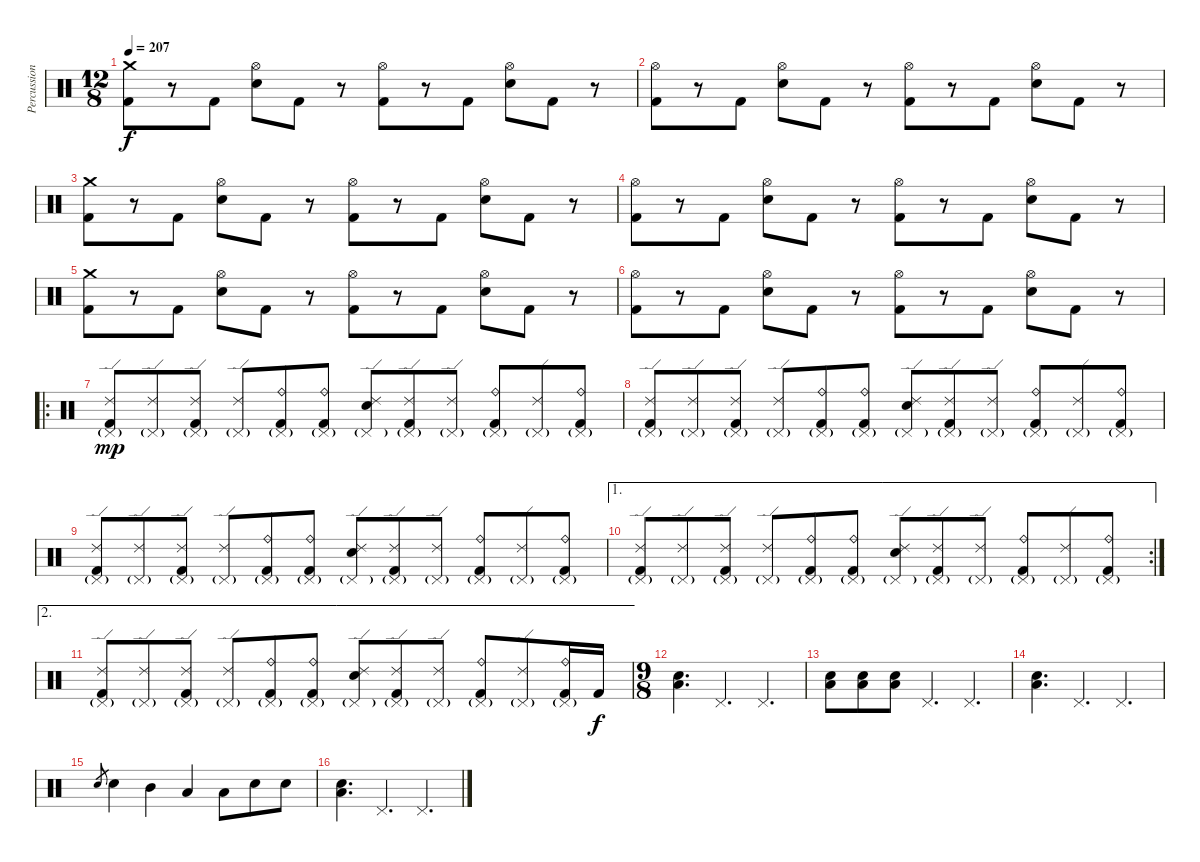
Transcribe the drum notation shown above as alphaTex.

\track ("Percussion" "Percussion") {instrument percussion}
\staff {score}
\articulation defaults
\ts (12 8)
\tempo 207
\clef neutral
\ks c
("Crash medium (hit)" "Kick (hit) 2").8{dy f} r.8 "Kick (hit) 2".8 ("Hi-Hat (open)" "Electric Snare (hit)").8 "Kick (hit) 2".8 r.8 ("Hi-Hat (open)" "Kick (hit) 2").8 r.8 "Kick (hit) 2".8 ("Hi-Hat (open)" "Electric Snare (hit)").8 "Kick (hit) 2".8 r.8 |
("Hi-Hat (open)" "Kick (hit) 2").8 r.8 "Kick (hit) 2".8 ("Hi-Hat (open)" "Electric Snare (hit)").8 "Kick (hit) 2".8 r.8 ("Hi-Hat (open)" "Kick (hit) 2").8 r.8 "Kick (hit) 2".8 ("Hi-Hat (open)" "Electric Snare (hit)").8 "Kick (hit) 2".8 r.8 |
("Crash medium (hit)" "Kick (hit) 2").8 r.8 "Kick (hit) 2".8 ("Hi-Hat (open)" "Electric Snare (hit)").8 "Kick (hit) 2".8 r.8 ("Hi-Hat (open)" "Kick (hit) 2").8 r.8 "Kick (hit) 2".8 ("Hi-Hat (open)" "Electric Snare (hit)").8 "Kick (hit) 2".8 r.8 |
("Hi-Hat (open)" "Kick (hit) 2").8 r.8 "Kick (hit) 2".8 ("Hi-Hat (open)" "Electric Snare (hit)").8 "Kick (hit) 2".8 r.8 ("Hi-Hat (open)" "Kick (hit) 2").8 r.8 "Kick (hit) 2".8 ("Hi-Hat (open)" "Electric Snare (hit)").8 "Kick (hit) 2".8 r.8 |
("Crash medium (hit)" "Kick (hit) 2").8 r.8 "Kick (hit) 2".8 ("Hi-Hat (open)" "Electric Snare (hit)").8 "Kick (hit) 2".8 r.8 ("Hi-Hat (open)" "Kick (hit) 2").8 r.8 "Kick (hit) 2".8 ("Hi-Hat (open)" "Electric Snare (hit)").8 "Kick (hit) 2".8 r.8 |
("Hi-Hat (open)" "Kick (hit) 2").8 r.8 "Kick (hit) 2".8 ("Hi-Hat (open)" "Electric Snare (hit)").8 "Kick (hit) 2".8 r.8 ("Hi-Hat (open)" "Kick (hit) 2").8 r.8 "Kick (hit) 2".8 ("Hi-Hat (open)" "Electric Snare (hit)").8 "Kick (hit) 2".8 r.8 |
\ro
("Ride (edge) 2" "Pedal Hi-Hat (hit)"{g} "Kick (hit) 2").8{dy mp} ("Ride (edge) 2" "Pedal Hi-Hat (hit)"{g}).8 ("Ride (edge) 2" "Pedal Hi-Hat (hit)"{g} "Kick (hit) 2").8 ("Ride (edge) 2" "Pedal Hi-Hat (hit)"{g}).8 ("Ride (bell)" "Pedal Hi-Hat (hit)"{g} "Kick (hit) 2").8 ("Ride (bell)" "Pedal Hi-Hat (hit)"{g} "Kick (hit) 2").8 ("Ride (edge) 2" "Pedal Hi-Hat (hit)"{g} "Electric Snare (hit)").8 ("Ride (edge) 2" "Pedal Hi-Hat (hit)"{g} "Kick (hit) 2").8 ("Ride (edge) 2" "Pedal Hi-Hat (hit)"{g}).8 ("Ride (bell)" "Pedal Hi-Hat (hit)"{g} "Kick (hit) 2").8 ("Ride (edge) 2" "Pedal Hi-Hat (hit)"{g}).8 ("Ride (bell)" "Pedal Hi-Hat (hit)"{g} "Kick (hit) 2").8 |
("Ride (edge) 2" "Pedal Hi-Hat (hit)"{g} "Kick (hit) 2").8 ("Ride (edge) 2" "Pedal Hi-Hat (hit)"{g}).8 ("Ride (edge) 2" "Pedal Hi-Hat (hit)"{g} "Kick (hit) 2").8 ("Ride (edge) 2" "Pedal Hi-Hat (hit)"{g}).8 ("Ride (bell)" "Pedal Hi-Hat (hit)"{g} "Kick (hit) 2").8 ("Ride (bell)" "Pedal Hi-Hat (hit)"{g} "Kick (hit) 2").8 ("Ride (edge) 2" "Pedal Hi-Hat (hit)"{g} "Electric Snare (hit)").8 ("Ride (edge) 2" "Pedal Hi-Hat (hit)"{g} "Kick (hit) 2").8 ("Ride (edge) 2" "Pedal Hi-Hat (hit)"{g}).8 ("Ride (bell)" "Pedal Hi-Hat (hit)"{g} "Kick (hit) 2").8 ("Ride (edge) 2" "Pedal Hi-Hat (hit)"{g}).8 ("Ride (bell)" "Pedal Hi-Hat (hit)"{g} "Kick (hit) 2").8 |
("Ride (edge) 2" "Pedal Hi-Hat (hit)"{g} "Kick (hit) 2").8 ("Ride (edge) 2" "Pedal Hi-Hat (hit)"{g}).8 ("Ride (edge) 2" "Pedal Hi-Hat (hit)"{g} "Kick (hit) 2").8 ("Ride (edge) 2" "Pedal Hi-Hat (hit)"{g}).8 ("Ride (bell)" "Pedal Hi-Hat (hit)"{g} "Kick (hit) 2").8 ("Ride (bell)" "Pedal Hi-Hat (hit)"{g} "Kick (hit) 2").8 ("Ride (edge) 2" "Pedal Hi-Hat (hit)"{g} "Electric Snare (hit)").8 ("Ride (edge) 2" "Pedal Hi-Hat (hit)"{g} "Kick (hit) 2").8 ("Ride (edge) 2" "Pedal Hi-Hat (hit)"{g}).8 ("Ride (bell)" "Pedal Hi-Hat (hit)"{g} "Kick (hit) 2").8 ("Ride (edge) 2" "Pedal Hi-Hat (hit)"{g}).8 ("Ride (bell)" "Pedal Hi-Hat (hit)"{g} "Kick (hit) 2").8 |
\ae 1
\rc 2
("Ride (edge) 2" "Pedal Hi-Hat (hit)"{g} "Kick (hit) 2").8 ("Ride (edge) 2" "Pedal Hi-Hat (hit)"{g}).8 ("Ride (edge) 2" "Pedal Hi-Hat (hit)"{g} "Kick (hit) 2").8 ("Ride (edge) 2" "Pedal Hi-Hat (hit)"{g}).8 ("Ride (bell)" "Pedal Hi-Hat (hit)"{g} "Kick (hit) 2").8 ("Ride (bell)" "Pedal Hi-Hat (hit)"{g} "Kick (hit) 2").8 ("Ride (edge) 2" "Pedal Hi-Hat (hit)"{g} "Electric Snare (hit)").8 ("Ride (edge) 2" "Pedal Hi-Hat (hit)"{g} "Kick (hit) 2").8 ("Ride (edge) 2" "Pedal Hi-Hat (hit)"{g}).8 ("Ride (bell)" "Pedal Hi-Hat (hit)"{g} "Kick (hit) 2").8 ("Ride (edge) 2" "Pedal Hi-Hat (hit)"{g}).8 ("Ride (bell)" "Pedal Hi-Hat (hit)"{g} "Kick (hit) 2").8 |
\ae 2
("Ride (edge) 2" "Pedal Hi-Hat (hit)"{g} "Kick (hit) 2").8 ("Ride (edge) 2" "Pedal Hi-Hat (hit)"{g}).8 ("Ride (edge) 2" "Pedal Hi-Hat (hit)"{g} "Kick (hit) 2").8 ("Ride (edge) 2" "Pedal Hi-Hat (hit)"{g}).8 ("Ride (bell)" "Pedal Hi-Hat (hit)"{g} "Kick (hit) 2").8 ("Ride (bell)" "Pedal Hi-Hat (hit)"{g} "Kick (hit) 2").8 ("Ride (edge) 2" "Pedal Hi-Hat (hit)"{g} "Electric Snare (hit)").8 ("Ride (edge) 2" "Pedal Hi-Hat (hit)"{g} "Kick (hit) 2").8 ("Ride (edge) 2" "Pedal Hi-Hat (hit)"{g}).8 ("Ride (bell)" "Pedal Hi-Hat (hit)"{g} "Kick (hit) 2").8 ("Ride (edge) 2" "Pedal Hi-Hat (hit)"{g}).8 ("Ride (bell)" "Pedal Hi-Hat (hit)"{g} "Kick (hit) 2").16 "Kick (hit) 2".16{dy f} |
\ts (9 8)
("Low Floor Tom (hit)" "Electric Snare (hit)").4{d} "Pedal Hi-Hat (hit)".4{d} "Pedal Hi-Hat (hit)".4{d} |
("Low Floor Tom (hit)" "Electric Snare (hit)").8 ("Low Floor Tom (hit)" "Electric Snare (hit)").8 ("Low Floor Tom (hit)" "Electric Snare (hit)").8 "Pedal Hi-Hat (hit)".4{d} "Pedal Hi-Hat (hit)".4{d} |
("Low Floor Tom (hit)" "Electric Snare (hit)").4{d} "Pedal Hi-Hat (hit)".4{d} "Pedal Hi-Hat (hit)".4{d} |
"Electric Snare (hit)".8{gr} "Electric Snare (hit)".4 "Mid Tom (hit)".4 "Low Tom (hit)".4 "Low Tom (hit)".8 "Electric Snare (hit)".8 "Electric Snare (hit)".8 |
("Low Floor Tom (hit)" "Electric Snare (hit)").4{d} "Pedal Hi-Hat (hit)".4{d} "Pedal Hi-Hat (hit)".4{d}
